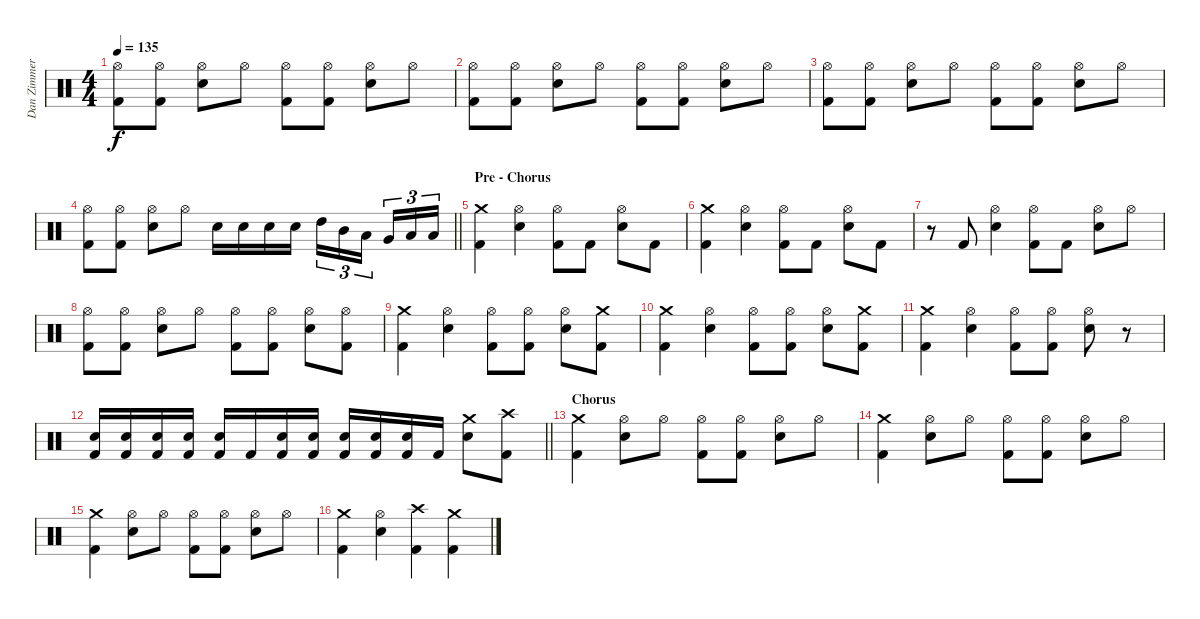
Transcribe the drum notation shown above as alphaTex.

\track ("Dan Zimmermann" "Dan Zimmer") {instrument percussion}
\staff {score}
\articulation defaults
\ts (4 4)
\tempo 135
\clef neutral
\ks c
("Hi-Hat (open)" "Kick (hit) 2").8{dy f} ("Hi-Hat (open)" "Kick (hit) 2").8 ("Hi-Hat (open)" "Electric Snare (hit)").8 "Hi-Hat (open)".8 ("Hi-Hat (open)" "Kick (hit) 2").8 ("Hi-Hat (open)" "Kick (hit) 2").8 ("Hi-Hat (open)" "Electric Snare (hit)").8 "Hi-Hat (open)".8 |
("Hi-Hat (open)" "Kick (hit) 2").8 ("Hi-Hat (open)" "Kick (hit) 2").8 ("Hi-Hat (open)" "Electric Snare (hit)").8 "Hi-Hat (open)".8 ("Hi-Hat (open)" "Kick (hit) 2").8 ("Hi-Hat (open)" "Kick (hit) 2").8 ("Hi-Hat (open)" "Electric Snare (hit)").8 "Hi-Hat (open)".8 |
("Hi-Hat (open)" "Kick (hit) 2").8 ("Hi-Hat (open)" "Kick (hit) 2").8 ("Hi-Hat (open)" "Electric Snare (hit)").8 "Hi-Hat (open)".8 ("Hi-Hat (open)" "Kick (hit) 2").8 ("Hi-Hat (open)" "Kick (hit) 2").8 ("Hi-Hat (open)" "Electric Snare (hit)").8 "Hi-Hat (open)".8 |
\barLineRight lightlight
("Hi-Hat (open)" "Kick (hit) 2").8 ("Hi-Hat (open)" "Kick (hit) 2").8 ("Hi-Hat (open)" "Electric Snare (hit)").8 "Hi-Hat (open)".8 "Electric Snare (hit)".16 "Electric Snare (hit)".16 "Electric Snare (hit)".16 "Electric Snare (hit)".16 "High Tom (hit)".16{tu (3 2)} "Mid Tom (hit)".16{tu (3 2)} "Low Tom (hit)".16{tu (3 2) beam splitsecondary} "Very Low Tom (hit)".16{tu (3 2)} "Low Floor Tom (hit)".16{tu (3 2)} "Low Floor Tom (hit)".16{tu (3 2)} |
\section ("" "Pre - Chorus")
("Crash medium (hit)" "Kick (hit) 2").4 ("Hi-Hat (open)" "Electric Snare (hit)").4 ("Hi-Hat (open)" "Kick (hit) 2").8 "Kick (hit) 2".8 ("Hi-Hat (open)" "Electric Snare (hit)").8 "Kick (hit) 2".8 |
("Crash medium (hit)" "Kick (hit) 2").4 ("Hi-Hat (open)" "Electric Snare (hit)").4 ("Hi-Hat (open)" "Kick (hit) 2").8 "Kick (hit) 2".8 ("Hi-Hat (open)" "Electric Snare (hit)").8 "Kick (hit) 2".8 |
r.8 "Kick (hit) 2".8 ("Hi-Hat (open)" "Electric Snare (hit)").4 ("Hi-Hat (open)" "Kick (hit) 2").8 "Kick (hit) 2".8 ("Hi-Hat (open)" "Electric Snare (hit)").8 "Hi-Hat (open)".8 |
("Hi-Hat (open)" "Kick (hit) 2").8 ("Hi-Hat (open)" "Kick (hit) 2").8 ("Hi-Hat (open)" "Electric Snare (hit)").8 "Hi-Hat (open)".8 ("Hi-Hat (open)" "Kick (hit) 2").8 ("Hi-Hat (open)" "Kick (hit) 2").8 ("Hi-Hat (open)" "Electric Snare (hit)").8 ("Hi-Hat (open)" "Kick (hit) 2").8 |
("Crash medium (hit)" "Kick (hit) 2").4 ("Hi-Hat (open)" "Electric Snare (hit)").4 ("Hi-Hat (open)" "Kick (hit) 2").8 ("Hi-Hat (open)" "Kick (hit) 2").8 ("Hi-Hat (open)" "Electric Snare (hit)").8 ("Crash medium (hit)" "Kick (hit) 2").8 |
("Crash medium (hit)" "Kick (hit) 2").4 ("Hi-Hat (open)" "Electric Snare (hit)").4 ("Hi-Hat (open)" "Kick (hit) 2").8 ("Hi-Hat (open)" "Kick (hit) 2").8 ("Hi-Hat (open)" "Electric Snare (hit)").8 ("Crash medium (hit)" "Kick (hit) 2").8 |
("Crash medium (hit)" "Kick (hit) 2").4 ("Hi-Hat (open)" "Electric Snare (hit)").4 ("Hi-Hat (open)" "Kick (hit) 2").8 ("Hi-Hat (open)" "Kick (hit) 2").8 ("Hi-Hat (open)" "Electric Snare (hit)").8 r.8 |
\barLineRight lightlight
("Electric Snare (hit)" "Kick (hit) 2").16 ("Electric Snare (hit)" "Kick (hit) 2").16 ("Electric Snare (hit)" "Kick (hit) 2").16 ("Electric Snare (hit)" "Kick (hit) 2").16 ("Electric Snare (hit)" "Kick (hit) 2").16 "Kick (hit) 2".16 ("Electric Snare (hit)" "Kick (hit) 2").16 ("Electric Snare (hit)" "Kick (hit) 2").16 ("Electric Snare (hit)" "Kick (hit) 2").16 ("Electric Snare (hit)" "Kick (hit) 2").16 ("Electric Snare (hit)" "Kick (hit) 2").16 "Kick (hit) 2".16 ("Crash medium (hit)" "Electric Snare (hit)").8 ("Crash high (hit)" "Kick (hit) 2").8 |
\section ("" "Chorus")
("Crash medium (hit)" "Kick (hit) 2").4 ("Hi-Hat (open)" "Electric Snare (hit)").8 "Hi-Hat (open)".8 ("Hi-Hat (open)" "Kick (hit) 2").8 ("Hi-Hat (open)" "Kick (hit) 2").8 ("Hi-Hat (open)" "Electric Snare (hit)").8 "Hi-Hat (open)".8 |
("Crash medium (hit)" "Kick (hit) 2").4 ("Hi-Hat (open)" "Electric Snare (hit)").8 "Hi-Hat (open)".8 ("Hi-Hat (open)" "Kick (hit) 2").8 ("Hi-Hat (open)" "Kick (hit) 2").8 ("Hi-Hat (open)" "Electric Snare (hit)").8 "Hi-Hat (open)".8 |
("Crash medium (hit)" "Kick (hit) 2").4 ("Hi-Hat (open)" "Electric Snare (hit)").8 "Hi-Hat (open)".8 ("Hi-Hat (open)" "Kick (hit) 2").8 ("Hi-Hat (open)" "Kick (hit) 2").8 ("Hi-Hat (open)" "Electric Snare (hit)").8 "Hi-Hat (open)".8 |
("Crash medium (hit)" "Kick (hit) 2").4 ("Hi-Hat (open)" "Electric Snare (hit)").4 ("Crash high (hit)" "Kick (hit) 2").4 ("Crash medium (hit)" "Kick (hit) 2").4
